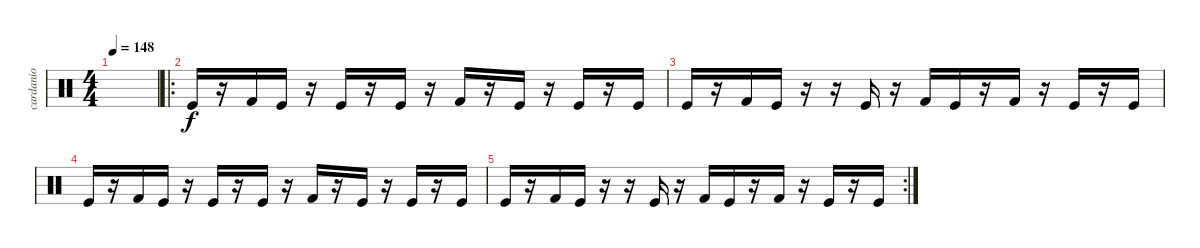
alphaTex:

\track ("cardanio" "cardanio") {instrument percussion}
\staff {score}
\articulation defaults
\ts (4 4)
\tempo 148
\clef neutral
\ks c
|
\ro "Kick (hit)".16
r.16 "Kick (hit) 2".16 "Kick (hit)".16 r.16 "Kick (hit)".16 r.16 "Kick (hit)".16 r.16 "Kick (hit) 2".16 r.16 "Kick (hit)".16 r.16 "Kick (hit)".16 r.16 "Kick (hit)".16 |
"Kick (hit)".16 r.16 "Kick (hit) 2".16 "Kick (hit)".16 r.16 r.16 "Kick (hit)".16 r.16 "Kick (hit) 2".16 "Kick (hit)".16 r.16 "Kick (hit) 2".16 r.16 "Kick (hit)".16 r.16 "Kick (hit)".16 |
"Kick (hit)".16 r.16 "Kick (hit) 2".16 "Kick (hit)".16 r.16 "Kick (hit)".16 r.16 "Kick (hit)".16 r.16 "Kick (hit) 2".16 r.16 "Kick (hit)".16 r.16 "Kick (hit)".16 r.16 "Kick (hit)".16 |
\rc 2 "Kick (hit)".16
r.16 "Kick (hit) 2".16 "Kick (hit)".16 r.16 r.16 "Kick (hit)".16 r.16 "Kick (hit) 2".16 "Kick (hit)".16 r.16 "Kick (hit) 2".16 r.16 "Kick (hit)".16 r.16 "Kick (hit)".16
